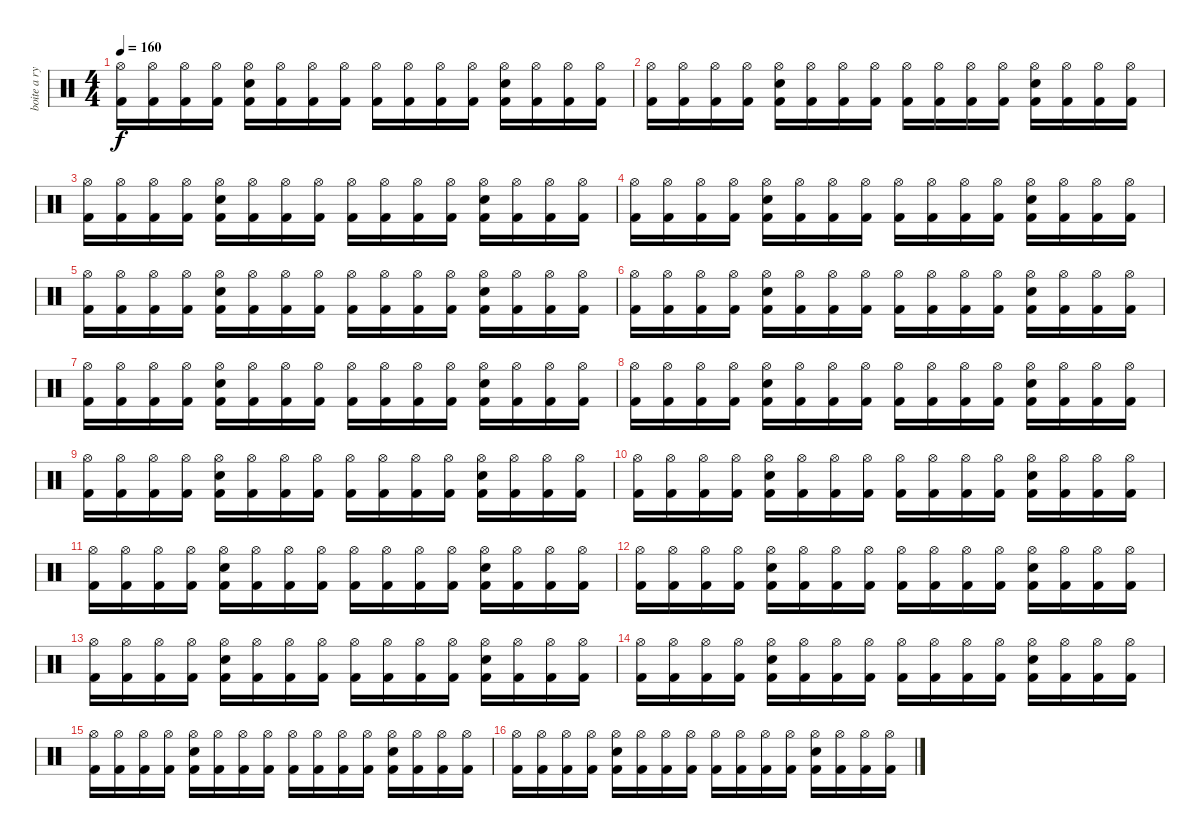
\track ("boite a rythme" "boite a ry") {instrument percussion}
\staff {score}
\articulation defaults
\ts (4 4)
\tempo 160
\clef neutral
\ks c
("Hi-Hat (open)" "Kick (hit) 2").16{dy f} ("Hi-Hat (open)" "Kick (hit) 2").16 ("Hi-Hat (open)" "Kick (hit) 2").16 ("Hi-Hat (open)" "Kick (hit) 2").16 ("Hi-Hat (open)" "Electric Snare (hit)" "Kick (hit) 2").16 ("Hi-Hat (open)" "Kick (hit) 2").16 ("Hi-Hat (open)" "Kick (hit) 2").16 ("Hi-Hat (open)" "Kick (hit) 2").16 ("Hi-Hat (open)" "Kick (hit) 2").16 ("Hi-Hat (open)" "Kick (hit) 2").16 ("Hi-Hat (open)" "Kick (hit) 2").16 ("Hi-Hat (open)" "Kick (hit) 2").16 ("Hi-Hat (open)" "Electric Snare (hit)" "Kick (hit) 2").16 ("Hi-Hat (open)" "Kick (hit) 2").16 ("Hi-Hat (open)" "Kick (hit) 2").16 ("Hi-Hat (open)" "Kick (hit) 2").16 |
("Hi-Hat (open)" "Kick (hit) 2").16 ("Hi-Hat (open)" "Kick (hit) 2").16 ("Hi-Hat (open)" "Kick (hit) 2").16 ("Hi-Hat (open)" "Kick (hit) 2").16 ("Hi-Hat (open)" "Electric Snare (hit)" "Kick (hit) 2").16 ("Hi-Hat (open)" "Kick (hit) 2").16 ("Hi-Hat (open)" "Kick (hit) 2").16 ("Hi-Hat (open)" "Kick (hit) 2").16 ("Hi-Hat (open)" "Kick (hit) 2").16 ("Hi-Hat (open)" "Kick (hit) 2").16 ("Hi-Hat (open)" "Kick (hit) 2").16 ("Hi-Hat (open)" "Kick (hit) 2").16 ("Hi-Hat (open)" "Electric Snare (hit)" "Kick (hit) 2").16 ("Hi-Hat (open)" "Kick (hit) 2").16 ("Hi-Hat (open)" "Kick (hit) 2").16 ("Hi-Hat (open)" "Kick (hit) 2").16 |
("Hi-Hat (open)" "Kick (hit) 2").16 ("Hi-Hat (open)" "Kick (hit) 2").16 ("Hi-Hat (open)" "Kick (hit) 2").16 ("Hi-Hat (open)" "Kick (hit) 2").16 ("Hi-Hat (open)" "Electric Snare (hit)" "Kick (hit) 2").16 ("Hi-Hat (open)" "Kick (hit) 2").16 ("Hi-Hat (open)" "Kick (hit) 2").16 ("Hi-Hat (open)" "Kick (hit) 2").16 ("Hi-Hat (open)" "Kick (hit) 2").16 ("Hi-Hat (open)" "Kick (hit) 2").16 ("Hi-Hat (open)" "Kick (hit) 2").16 ("Hi-Hat (open)" "Kick (hit) 2").16 ("Hi-Hat (open)" "Electric Snare (hit)" "Kick (hit) 2").16 ("Hi-Hat (open)" "Kick (hit) 2").16 ("Hi-Hat (open)" "Kick (hit) 2").16 ("Hi-Hat (open)" "Kick (hit) 2").16 |
("Hi-Hat (open)" "Kick (hit) 2").16 ("Hi-Hat (open)" "Kick (hit) 2").16 ("Hi-Hat (open)" "Kick (hit) 2").16 ("Hi-Hat (open)" "Kick (hit) 2").16 ("Hi-Hat (open)" "Electric Snare (hit)" "Kick (hit) 2").16 ("Hi-Hat (open)" "Kick (hit) 2").16 ("Hi-Hat (open)" "Kick (hit) 2").16 ("Hi-Hat (open)" "Kick (hit) 2").16 ("Hi-Hat (open)" "Kick (hit) 2").16 ("Hi-Hat (open)" "Kick (hit) 2").16 ("Hi-Hat (open)" "Kick (hit) 2").16 ("Hi-Hat (open)" "Kick (hit) 2").16 ("Hi-Hat (open)" "Electric Snare (hit)" "Kick (hit) 2").16 ("Hi-Hat (open)" "Kick (hit) 2").16 ("Hi-Hat (open)" "Kick (hit) 2").16 ("Hi-Hat (open)" "Kick (hit) 2").16 |
("Hi-Hat (open)" "Kick (hit) 2").16 ("Hi-Hat (open)" "Kick (hit) 2").16 ("Hi-Hat (open)" "Kick (hit) 2").16 ("Hi-Hat (open)" "Kick (hit) 2").16 ("Hi-Hat (open)" "Electric Snare (hit)" "Kick (hit) 2").16 ("Hi-Hat (open)" "Kick (hit) 2").16 ("Hi-Hat (open)" "Kick (hit) 2").16 ("Hi-Hat (open)" "Kick (hit) 2").16 ("Hi-Hat (open)" "Kick (hit) 2").16 ("Hi-Hat (open)" "Kick (hit) 2").16 ("Hi-Hat (open)" "Kick (hit) 2").16 ("Hi-Hat (open)" "Kick (hit) 2").16 ("Hi-Hat (open)" "Electric Snare (hit)" "Kick (hit) 2").16 ("Hi-Hat (open)" "Kick (hit) 2").16 ("Hi-Hat (open)" "Kick (hit) 2").16 ("Hi-Hat (open)" "Kick (hit) 2").16 |
("Hi-Hat (open)" "Kick (hit) 2").16 ("Hi-Hat (open)" "Kick (hit) 2").16 ("Hi-Hat (open)" "Kick (hit) 2").16 ("Hi-Hat (open)" "Kick (hit) 2").16 ("Hi-Hat (open)" "Electric Snare (hit)" "Kick (hit) 2").16 ("Hi-Hat (open)" "Kick (hit) 2").16 ("Hi-Hat (open)" "Kick (hit) 2").16 ("Hi-Hat (open)" "Kick (hit) 2").16 ("Hi-Hat (open)" "Kick (hit) 2").16 ("Hi-Hat (open)" "Kick (hit) 2").16 ("Hi-Hat (open)" "Kick (hit) 2").16 ("Hi-Hat (open)" "Kick (hit) 2").16 ("Hi-Hat (open)" "Electric Snare (hit)" "Kick (hit) 2").16 ("Hi-Hat (open)" "Kick (hit) 2").16 ("Hi-Hat (open)" "Kick (hit) 2").16 ("Hi-Hat (open)" "Kick (hit) 2").16 |
("Hi-Hat (open)" "Kick (hit) 2").16 ("Hi-Hat (open)" "Kick (hit) 2").16 ("Hi-Hat (open)" "Kick (hit) 2").16 ("Hi-Hat (open)" "Kick (hit) 2").16 ("Hi-Hat (open)" "Electric Snare (hit)" "Kick (hit) 2").16 ("Hi-Hat (open)" "Kick (hit) 2").16 ("Hi-Hat (open)" "Kick (hit) 2").16 ("Hi-Hat (open)" "Kick (hit) 2").16 ("Hi-Hat (open)" "Kick (hit) 2").16 ("Hi-Hat (open)" "Kick (hit) 2").16 ("Hi-Hat (open)" "Kick (hit) 2").16 ("Hi-Hat (open)" "Kick (hit) 2").16 ("Hi-Hat (open)" "Electric Snare (hit)" "Kick (hit) 2").16 ("Hi-Hat (open)" "Kick (hit) 2").16 ("Hi-Hat (open)" "Kick (hit) 2").16 ("Hi-Hat (open)" "Kick (hit) 2").16 |
("Hi-Hat (open)" "Kick (hit) 2").16 ("Hi-Hat (open)" "Kick (hit) 2").16 ("Hi-Hat (open)" "Kick (hit) 2").16 ("Hi-Hat (open)" "Kick (hit) 2").16 ("Hi-Hat (open)" "Electric Snare (hit)" "Kick (hit) 2").16 ("Hi-Hat (open)" "Kick (hit) 2").16 ("Hi-Hat (open)" "Kick (hit) 2").16 ("Hi-Hat (open)" "Kick (hit) 2").16 ("Hi-Hat (open)" "Kick (hit) 2").16 ("Hi-Hat (open)" "Kick (hit) 2").16 ("Hi-Hat (open)" "Kick (hit) 2").16 ("Hi-Hat (open)" "Kick (hit) 2").16 ("Hi-Hat (open)" "Electric Snare (hit)" "Kick (hit) 2").16 ("Hi-Hat (open)" "Kick (hit) 2").16 ("Hi-Hat (open)" "Kick (hit) 2").16 ("Hi-Hat (open)" "Kick (hit) 2").16 |
("Hi-Hat (open)" "Kick (hit) 2").16 ("Hi-Hat (open)" "Kick (hit) 2").16 ("Hi-Hat (open)" "Kick (hit) 2").16 ("Hi-Hat (open)" "Kick (hit) 2").16 ("Hi-Hat (open)" "Electric Snare (hit)" "Kick (hit) 2").16 ("Hi-Hat (open)" "Kick (hit) 2").16 ("Hi-Hat (open)" "Kick (hit) 2").16 ("Hi-Hat (open)" "Kick (hit) 2").16 ("Hi-Hat (open)" "Kick (hit) 2").16 ("Hi-Hat (open)" "Kick (hit) 2").16 ("Hi-Hat (open)" "Kick (hit) 2").16 ("Hi-Hat (open)" "Kick (hit) 2").16 ("Hi-Hat (open)" "Electric Snare (hit)" "Kick (hit) 2").16 ("Hi-Hat (open)" "Kick (hit) 2").16 ("Hi-Hat (open)" "Kick (hit) 2").16 ("Hi-Hat (open)" "Kick (hit) 2").16 |
("Hi-Hat (open)" "Kick (hit) 2").16 ("Hi-Hat (open)" "Kick (hit) 2").16 ("Hi-Hat (open)" "Kick (hit) 2").16 ("Hi-Hat (open)" "Kick (hit) 2").16 ("Hi-Hat (open)" "Electric Snare (hit)" "Kick (hit) 2").16 ("Hi-Hat (open)" "Kick (hit) 2").16 ("Hi-Hat (open)" "Kick (hit) 2").16 ("Hi-Hat (open)" "Kick (hit) 2").16 ("Hi-Hat (open)" "Kick (hit) 2").16 ("Hi-Hat (open)" "Kick (hit) 2").16 ("Hi-Hat (open)" "Kick (hit) 2").16 ("Hi-Hat (open)" "Kick (hit) 2").16 ("Hi-Hat (open)" "Electric Snare (hit)" "Kick (hit) 2").16 ("Hi-Hat (open)" "Kick (hit) 2").16 ("Hi-Hat (open)" "Kick (hit) 2").16 ("Hi-Hat (open)" "Kick (hit) 2").16 |
("Hi-Hat (open)" "Kick (hit) 2").16 ("Hi-Hat (open)" "Kick (hit) 2").16 ("Hi-Hat (open)" "Kick (hit) 2").16 ("Hi-Hat (open)" "Kick (hit) 2").16 ("Hi-Hat (open)" "Electric Snare (hit)" "Kick (hit) 2").16 ("Hi-Hat (open)" "Kick (hit) 2").16 ("Hi-Hat (open)" "Kick (hit) 2").16 ("Hi-Hat (open)" "Kick (hit) 2").16 ("Hi-Hat (open)" "Kick (hit) 2").16 ("Hi-Hat (open)" "Kick (hit) 2").16 ("Hi-Hat (open)" "Kick (hit) 2").16 ("Hi-Hat (open)" "Kick (hit) 2").16 ("Hi-Hat (open)" "Electric Snare (hit)" "Kick (hit) 2").16 ("Hi-Hat (open)" "Kick (hit) 2").16 ("Hi-Hat (open)" "Kick (hit) 2").16 ("Hi-Hat (open)" "Kick (hit) 2").16 |
("Hi-Hat (open)" "Kick (hit) 2").16 ("Hi-Hat (open)" "Kick (hit) 2").16 ("Hi-Hat (open)" "Kick (hit) 2").16 ("Hi-Hat (open)" "Kick (hit) 2").16 ("Hi-Hat (open)" "Electric Snare (hit)" "Kick (hit) 2").16 ("Hi-Hat (open)" "Kick (hit) 2").16 ("Hi-Hat (open)" "Kick (hit) 2").16 ("Hi-Hat (open)" "Kick (hit) 2").16 ("Hi-Hat (open)" "Kick (hit) 2").16 ("Hi-Hat (open)" "Kick (hit) 2").16 ("Hi-Hat (open)" "Kick (hit) 2").16 ("Hi-Hat (open)" "Kick (hit) 2").16 ("Hi-Hat (open)" "Electric Snare (hit)" "Kick (hit) 2").16 ("Hi-Hat (open)" "Kick (hit) 2").16 ("Hi-Hat (open)" "Kick (hit) 2").16 ("Hi-Hat (open)" "Kick (hit) 2").16 |
("Hi-Hat (open)" "Kick (hit) 2").16 ("Hi-Hat (open)" "Kick (hit) 2").16 ("Hi-Hat (open)" "Kick (hit) 2").16 ("Hi-Hat (open)" "Kick (hit) 2").16 ("Hi-Hat (open)" "Electric Snare (hit)" "Kick (hit) 2").16 ("Hi-Hat (open)" "Kick (hit) 2").16 ("Hi-Hat (open)" "Kick (hit) 2").16 ("Hi-Hat (open)" "Kick (hit) 2").16 ("Hi-Hat (open)" "Kick (hit) 2").16 ("Hi-Hat (open)" "Kick (hit) 2").16 ("Hi-Hat (open)" "Kick (hit) 2").16 ("Hi-Hat (open)" "Kick (hit) 2").16 ("Hi-Hat (open)" "Electric Snare (hit)" "Kick (hit) 2").16 ("Hi-Hat (open)" "Kick (hit) 2").16 ("Hi-Hat (open)" "Kick (hit) 2").16 ("Hi-Hat (open)" "Kick (hit) 2").16 |
("Hi-Hat (open)" "Kick (hit) 2").16 ("Hi-Hat (open)" "Kick (hit) 2").16 ("Hi-Hat (open)" "Kick (hit) 2").16 ("Hi-Hat (open)" "Kick (hit) 2").16 ("Hi-Hat (open)" "Electric Snare (hit)" "Kick (hit) 2").16 ("Hi-Hat (open)" "Kick (hit) 2").16 ("Hi-Hat (open)" "Kick (hit) 2").16 ("Hi-Hat (open)" "Kick (hit) 2").16 ("Hi-Hat (open)" "Kick (hit) 2").16 ("Hi-Hat (open)" "Kick (hit) 2").16 ("Hi-Hat (open)" "Kick (hit) 2").16 ("Hi-Hat (open)" "Kick (hit) 2").16 ("Hi-Hat (open)" "Electric Snare (hit)" "Kick (hit) 2").16 ("Hi-Hat (open)" "Kick (hit) 2").16 ("Hi-Hat (open)" "Kick (hit) 2").16 ("Hi-Hat (open)" "Kick (hit) 2").16 |
("Hi-Hat (open)" "Kick (hit) 2").16 ("Hi-Hat (open)" "Kick (hit) 2").16 ("Hi-Hat (open)" "Kick (hit) 2").16 ("Hi-Hat (open)" "Kick (hit) 2").16 ("Hi-Hat (open)" "Electric Snare (hit)" "Kick (hit) 2").16 ("Hi-Hat (open)" "Kick (hit) 2").16 ("Hi-Hat (open)" "Kick (hit) 2").16 ("Hi-Hat (open)" "Kick (hit) 2").16 ("Hi-Hat (open)" "Kick (hit) 2").16 ("Hi-Hat (open)" "Kick (hit) 2").16 ("Hi-Hat (open)" "Kick (hit) 2").16 ("Hi-Hat (open)" "Kick (hit) 2").16 ("Hi-Hat (open)" "Electric Snare (hit)" "Kick (hit) 2").16 ("Hi-Hat (open)" "Kick (hit) 2").16 ("Hi-Hat (open)" "Kick (hit) 2").16 ("Hi-Hat (open)" "Kick (hit) 2").16 |
("Hi-Hat (open)" "Kick (hit) 2").16 ("Hi-Hat (open)" "Kick (hit) 2").16 ("Hi-Hat (open)" "Kick (hit) 2").16 ("Hi-Hat (open)" "Kick (hit) 2").16 ("Hi-Hat (open)" "Electric Snare (hit)" "Kick (hit) 2").16 ("Hi-Hat (open)" "Kick (hit) 2").16 ("Hi-Hat (open)" "Kick (hit) 2").16 ("Hi-Hat (open)" "Kick (hit) 2").16 ("Hi-Hat (open)" "Kick (hit) 2").16 ("Hi-Hat (open)" "Kick (hit) 2").16 ("Hi-Hat (open)" "Kick (hit) 2").16 ("Hi-Hat (open)" "Kick (hit) 2").16 ("Hi-Hat (open)" "Electric Snare (hit)" "Kick (hit) 2").16 ("Hi-Hat (open)" "Kick (hit) 2").16 ("Hi-Hat (open)" "Kick (hit) 2").16 ("Hi-Hat (open)" "Kick (hit) 2").16
